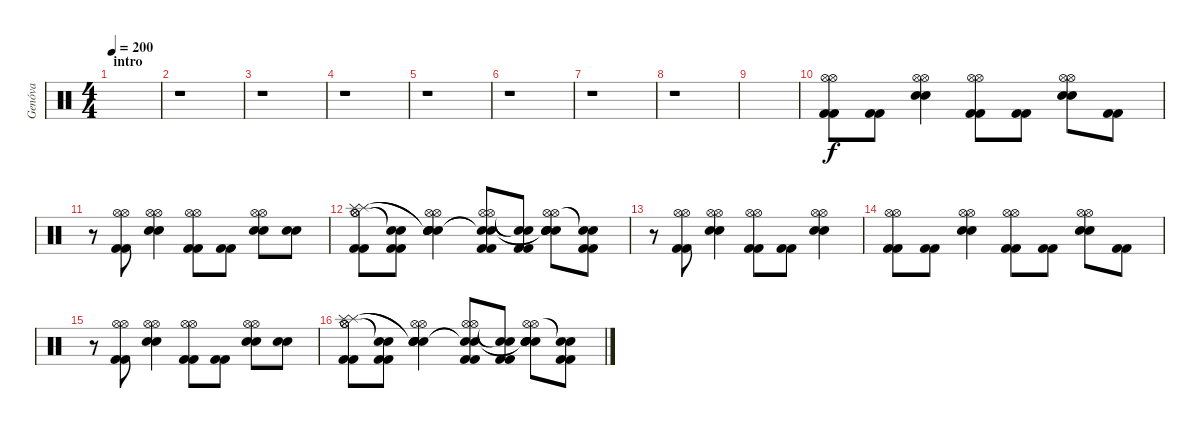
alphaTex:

\track ("Genóva" "Genóva") {instrument percussion}
\staff {score}
\articulation defaults
\ts (4 4)
\section ("" "intro")
\tempo 200
\clef neutral
\ks c
|
r.1 |
r.1 |
r.1 |
r.1 |
r.1 |
r.1 |
r.1 |
|
("Kick (hit) 2" "Kick (hit) 2" "Hi-Hat (open)" "Hi-Hat (open)").8 ("Kick (hit) 2" "Kick (hit) 2").8 ("Snare (hit) 2" "Snare (hit) 2" "Hi-Hat (open)" "Hi-Hat (open)").4 ("Kick (hit) 2" "Kick (hit) 2" "Hi-Hat (open)" "Hi-Hat (open)").8 ("Kick (hit) 2" "Kick (hit) 2").8 ("Snare (hit) 2" "Snare (hit) 2" "Hi-Hat (open)" "Hi-Hat (open)").8 ("Kick (hit) 2" "Kick (hit) 2").8 |
r.8 ("Kick (hit) 2" "Kick (hit) 2" "Hi-Hat (open)" "Hi-Hat (open)").8 ("Snare (hit) 2" "Snare (hit) 2" "Hi-Hat (open)" "Hi-Hat (open)").4 ("Kick (hit) 2" "Kick (hit) 2" "Hi-Hat (open)" "Hi-Hat (open)").8 ("Kick (hit) 2" "Kick (hit) 2").8 ("Snare (hit) 2" "Snare (hit) 2" "Hi-Hat (open)" "Hi-Hat (open)").8 ("Snare (hit) 2" "Snare (hit) 2").8 |
("Kick (hit) 2" "Kick (hit) 2" "Hi-Hat (open)" "Hi-Hat (open)" "Splash (hit)" "Splash (hit)").8 ("Kick (hit) 2" "Kick (hit) 2" "Snare (hit)"{t} "Snare (hit)"{t}).8 ("Snare (hit) 2" "Snare (hit) 2" "Hi-Hat (open)" "Hi-Hat (open)" "Snare (hit)"{t} "Snare (hit)"{t}).4 ("Kick (hit) 2" "Kick (hit) 2" "Hi-Hat (open)" "Hi-Hat (open)" "Snare (hit)"{t} "Snare (hit)"{t}).8 ("Kick (hit) 2" "Kick (hit) 2" "Snare (hit)"{t} "Snare (hit)"{t}).8 ("Snare (hit) 2" "Snare (hit) 2" "Hi-Hat (open)" "Hi-Hat (open)" "Snare (hit)"{t} "Snare (hit)"{t}).8 ("Kick (hit) 2" "Kick (hit) 2" "Snare (hit)"{t} "Snare (hit)"{t}).8 |
r.8 ("Kick (hit) 2" "Kick (hit) 2" "Hi-Hat (open)" "Hi-Hat (open)").8 ("Snare (hit) 2" "Snare (hit) 2" "Hi-Hat (open)" "Hi-Hat (open)").4 ("Kick (hit) 2" "Kick (hit) 2" "Hi-Hat (open)" "Hi-Hat (open)").8 ("Kick (hit) 2" "Kick (hit) 2").8 ("Snare (hit) 2" "Snare (hit) 2" "Hi-Hat (open)" "Hi-Hat (open)").4 |
("Kick (hit) 2" "Kick (hit) 2" "Hi-Hat (open)" "Hi-Hat (open)").8 ("Kick (hit) 2" "Kick (hit) 2").8 ("Snare (hit) 2" "Snare (hit) 2" "Hi-Hat (open)" "Hi-Hat (open)").4 ("Kick (hit) 2" "Kick (hit) 2" "Hi-Hat (open)" "Hi-Hat (open)").8 ("Kick (hit) 2" "Kick (hit) 2").8 ("Snare (hit) 2" "Snare (hit) 2" "Hi-Hat (open)" "Hi-Hat (open)").8 ("Kick (hit) 2" "Kick (hit) 2").8 |
r.8 ("Kick (hit) 2" "Kick (hit) 2" "Hi-Hat (open)" "Hi-Hat (open)").8 ("Snare (hit) 2" "Snare (hit) 2" "Hi-Hat (open)" "Hi-Hat (open)").4 ("Kick (hit) 2" "Kick (hit) 2" "Hi-Hat (open)" "Hi-Hat (open)").8 ("Kick (hit) 2" "Kick (hit) 2").8 ("Snare (hit) 2" "Snare (hit) 2" "Hi-Hat (open)" "Hi-Hat (open)").8 ("Snare (hit) 2" "Snare (hit) 2").8 |
("Kick (hit) 2" "Kick (hit) 2" "Hi-Hat (open)" "Hi-Hat (open)" "Splash (hit)" "Splash (hit)").8 ("Kick (hit) 2" "Kick (hit) 2" "Snare (hit)"{t} "Snare (hit)"{t}).8 ("Snare (hit) 2" "Snare (hit) 2" "Hi-Hat (open)" "Hi-Hat (open)" "Snare (hit)"{t} "Snare (hit)"{t}).4 ("Kick (hit) 2" "Kick (hit) 2" "Hi-Hat (open)" "Hi-Hat (open)" "Snare (hit)"{t} "Snare (hit)"{t}).8 ("Kick (hit) 2" "Kick (hit) 2" "Snare (hit)"{t} "Snare (hit)"{t}).8 ("Snare (hit) 2" "Snare (hit) 2" "Hi-Hat (open)" "Hi-Hat (open)" "Snare (hit)"{t} "Snare (hit)"{t}).8 ("Kick (hit) 2" "Kick (hit) 2" "Snare (hit)"{t} "Snare (hit)"{t}).8
